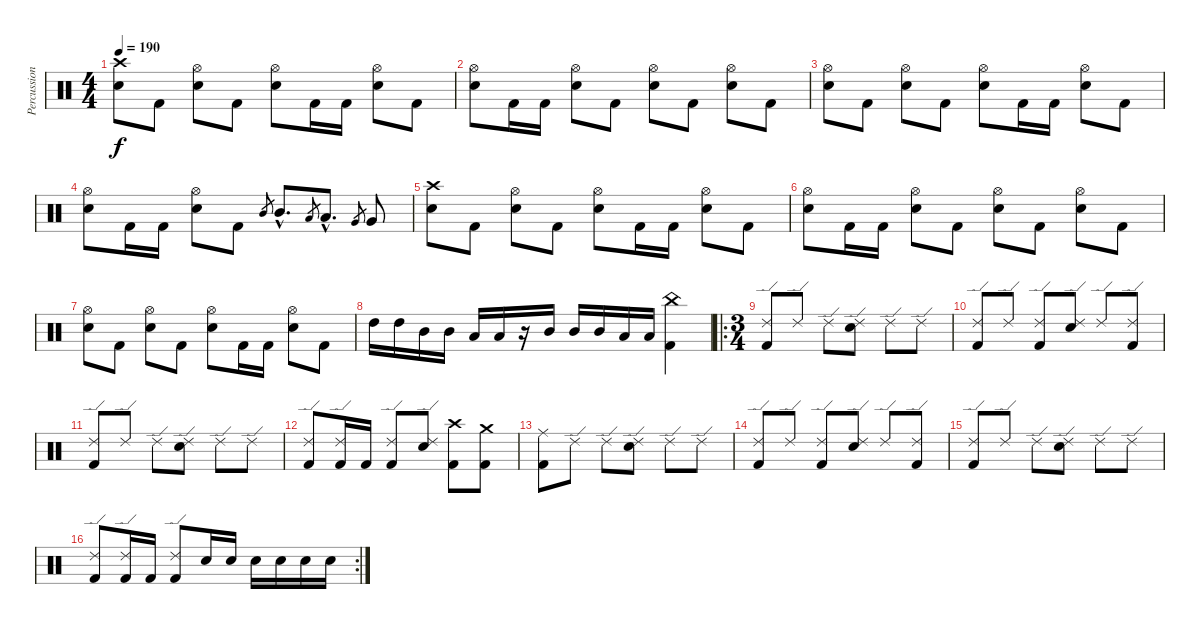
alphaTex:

\track ("Percussion" "Percussion") {instrument percussion}
\staff {score}
\articulation defaults
\ts (4 4)
\tempo 190
\clef neutral
\ks c
("Crash high (hit)" "Electric Snare (hit)").8{dy f} "Kick (hit) 2".8 ("Hi-Hat (open)" "Electric Snare (hit)").8 "Kick (hit) 2".8 ("Hi-Hat (open)" "Electric Snare (hit)").8 "Kick (hit) 2".16 "Kick (hit) 2".16 ("Hi-Hat (open)" "Electric Snare (hit)").8 "Kick (hit) 2".8 |
("Hi-Hat (open)" "Electric Snare (hit)").8 "Kick (hit) 2".16 "Kick (hit) 2".16 ("Hi-Hat (open)" "Electric Snare (hit)").8 "Kick (hit) 2".8 ("Hi-Hat (open)" "Electric Snare (hit)").8 "Kick (hit) 2".8 ("Hi-Hat (open)" "Electric Snare (hit)").8 "Kick (hit) 2".8 |
("Hi-Hat (open)" "Electric Snare (hit)").8 "Kick (hit) 2".8 ("Hi-Hat (open)" "Electric Snare (hit)").8 "Kick (hit) 2".8 ("Hi-Hat (open)" "Electric Snare (hit)").8 "Kick (hit) 2".16 "Kick (hit) 2".16 ("Hi-Hat (open)" "Electric Snare (hit)").8 "Kick (hit) 2".8 |
("Hi-Hat (open)" "Electric Snare (hit)").8 "Kick (hit) 2".16 "Kick (hit) 2".16 ("Hi-Hat (open)" "Electric Snare (hit)").8 "Kick (hit) 2".8 "Mid Tom (hit)".8{gr} "Mid Tom (hit)"{hac}.8{d} "Low Tom (hit)".8{gr} "Low Tom (hit)"{hac}.8{d} "Very Low Tom (hit)".8{gr} "Very Low Tom (hit)".8 |
("Crash high (hit)" "Electric Snare (hit)").8 "Kick (hit) 2".8 ("Hi-Hat (open)" "Electric Snare (hit)").8 "Kick (hit) 2".8 ("Hi-Hat (open)" "Electric Snare (hit)").8 "Kick (hit) 2".16 "Kick (hit) 2".16 ("Hi-Hat (open)" "Electric Snare (hit)").8 "Kick (hit) 2".8 |
("Hi-Hat (open)" "Electric Snare (hit)").8 "Kick (hit) 2".16 "Kick (hit) 2".16 ("Hi-Hat (open)" "Electric Snare (hit)").8 "Kick (hit) 2".8 ("Hi-Hat (open)" "Electric Snare (hit)").8 "Kick (hit) 2".8 ("Hi-Hat (open)" "Electric Snare (hit)").8 "Kick (hit) 2".8 |
("Hi-Hat (open)" "Electric Snare (hit)").8 "Kick (hit) 2".8 ("Hi-Hat (open)" "Electric Snare (hit)").8 "Kick (hit) 2".8 ("Hi-Hat (open)" "Electric Snare (hit)").8 "Kick (hit) 2".16 "Kick (hit) 2".16 ("Hi-Hat (open)" "Electric Snare (hit)").8 "Kick (hit) 2".8 |
"High Tom (hit)".16 "High Tom (hit)".16 "Mid Tom (hit)".16 "Mid Tom (hit)".16 "Low Tom (hit)".16 "Low Tom (hit)".16 r.16 "Mid Tom (hit)".16 "Mid Tom (hit)".16 "Mid Tom (hit)".16 "Low Tom (hit)".16 "Low Tom (hit)".16 ("China (hit)" "Kick (hit) 2").4 |
\ro
\ts (3 4)
("Ride (edge) 2" "Kick (hit) 2").8 "Ride (edge) 2".8 "Ride (edge) 2".8 ("Ride (edge) 2" "Electric Snare (hit)").8 "Ride (edge) 2".8 "Ride (edge) 2".8 |
("Ride (edge) 2" "Kick (hit) 2").8 "Ride (edge) 2".8 ("Ride (edge) 2" "Kick (hit) 2").8 ("Ride (edge) 2" "Electric Snare (hit)").8 "Ride (edge) 2".8 ("Ride (edge) 2" "Kick (hit) 2").8 |
("Ride (edge) 2" "Kick (hit) 2").8 "Ride (edge) 2".8 "Ride (edge) 2".8 ("Ride (edge) 2" "Electric Snare (hit)").8 "Ride (edge) 2".8 "Ride (edge) 2".8 |
("Ride (edge) 2" "Kick (hit) 2").8 ("Ride (edge) 2" "Kick (hit) 2").16 "Kick (hit) 2".16 ("Ride (edge) 2" "Kick (hit) 2").8 ("Ride (edge) 2" "Electric Snare (hit)").8 ("Crash high (hit)" "Kick (hit) 2").8 ("Crash medium (hit)" "Kick (hit) 2").8 |
("Ride (middle)" "Kick (hit) 2").8 "Ride (edge) 2".8 "Ride (edge) 2".8 ("Ride (edge) 2" "Electric Snare (hit)").8 "Ride (edge) 2".8 "Ride (edge) 2".8 |
("Ride (edge) 2" "Kick (hit) 2").8 "Ride (edge) 2".8 ("Ride (edge) 2" "Kick (hit) 2").8 ("Ride (edge) 2" "Electric Snare (hit)").8 "Ride (edge) 2".8 ("Ride (edge) 2" "Kick (hit) 2").8 |
("Ride (edge) 2" "Kick (hit) 2").8 "Ride (edge) 2".8 "Ride (edge) 2".8 ("Ride (edge) 2" "Electric Snare (hit)").8 "Ride (edge) 2".8 "Ride (edge) 2".8 |
\rc 2
("Ride (edge) 2" "Kick (hit) 2").8 ("Ride (edge) 2" "Kick (hit) 2").16 "Kick (hit) 2".16 ("Ride (edge) 2" "Kick (hit) 2").8 "Electric Snare (hit)".16 "Electric Snare (hit)".16 "Electric Snare (hit)".16 "Electric Snare (hit)".16 "Electric Snare (hit)".16 "Electric Snare (hit)".16
